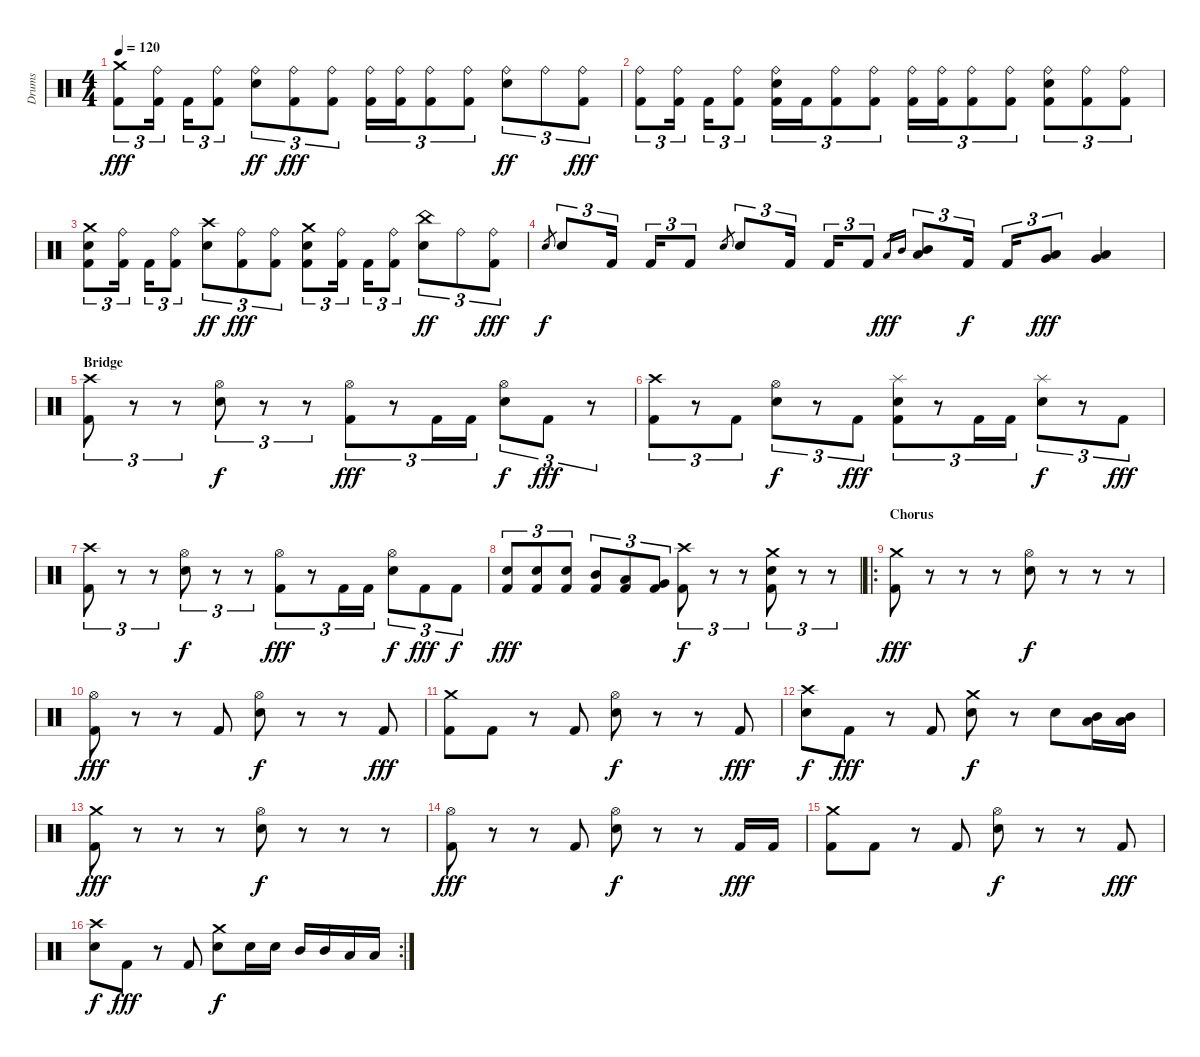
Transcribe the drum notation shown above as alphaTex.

\track ("Drums" "Drums") {instrument percussion}
\staff {score}
\articulation defaults
\ts (4 4)
\tempo 120
\clef neutral
\ks c
("Crash medium (hit)" "Kick (hit) 2").8{tu (3 2) dy fff} ("Ride (bell)" "Kick (hit) 2").16{tu (3 2)} "Kick (hit) 2".16{tu (3 2)} ("Ride (bell)" "Kick (hit) 2").8{tu (3 2)} ("Ride (bell)" "Snare (hit) 2").8{tu (3 2) dy ff} ("Ride (bell)" "Kick (hit) 2").8{tu (3 2) dy fff} ("Ride (bell)" "Kick (hit) 2").8{tu (3 2)} ("Ride (bell)" "Kick (hit) 2").16{tu (3 2)} ("Ride (bell)" "Kick (hit) 2").16{tu (3 2)} ("Ride (bell)" "Kick (hit) 2").8{tu (3 2)} ("Ride (bell)" "Kick (hit) 2").8{tu (3 2)} ("Ride (bell)" "Snare (hit) 2").8{tu (3 2) dy ff} "Ride (bell)".8{tu (3 2)} ("Ride (bell)" "Kick (hit) 2").8{tu (3 2) dy fff} |
("Ride (bell)" "Kick (hit) 2").8{tu (3 2)} ("Ride (bell)" "Kick (hit) 2").16{tu (3 2)} "Kick (hit) 2".16{tu (3 2)} ("Ride (bell)" "Kick (hit) 2").8{tu (3 2)} ("Ride (bell)" "Snare (hit) 2" "Kick (hit) 2").16{tu (3 2)} "Kick (hit) 2".16{tu (3 2)} ("Ride (bell)" "Kick (hit) 2").8{tu (3 2)} ("Ride (bell)" "Kick (hit) 2").8{tu (3 2)} ("Ride (bell)" "Kick (hit) 2").16{tu (3 2)} ("Ride (bell)" "Kick (hit) 2").16{tu (3 2)} ("Ride (bell)" "Kick (hit) 2").8{tu (3 2)} ("Ride (bell)" "Kick (hit) 2").8{tu (3 2)} ("Ride (bell)" "Snare (hit) 2" "Kick (hit) 2").8{tu (3 2)} ("Ride (bell)" "Kick (hit) 2").8{tu (3 2)} ("Ride (bell)" "Kick (hit) 2").8{tu (3 2)} |
("Crash medium (hit)" "Snare (hit) 2" "Kick (hit) 2").8{tu (3 2)} ("Ride (bell)" "Kick (hit) 2").16{tu (3 2)} "Kick (hit) 2".16{tu (3 2)} ("Ride (bell)" "Kick (hit) 2").8{tu (3 2)} ("Crash high (hit)" "Snare (hit) 2").8{tu (3 2) dy ff} ("Ride (bell)" "Kick (hit) 2").8{tu (3 2) dy fff} ("Ride (bell)" "Kick (hit) 2").8{tu (3 2)} ("Crash medium (hit)" "Snare (hit) 2" "Kick (hit) 2").8{tu (3 2)} ("Ride (bell)" "Kick (hit) 2").16{tu (3 2)} "Kick (hit) 2".16{tu (3 2)} ("Ride (bell)" "Kick (hit) 2").8{tu (3 2)} ("China (hit)" "Snare (hit) 2").8{tu (3 2) dy ff} "Ride (bell)".8{tu (3 2)} ("Ride (bell)" "Kick (hit) 2").8{tu (3 2) dy fff} |
"Snare (hit) 2".8{gr dy f} "Snare (hit) 2".8{tu (3 2)} "Kick (hit) 2".16{tu (3 2)} "Kick (hit) 2".16{tu (3 2)} "Kick (hit) 2".8{tu (3 2)} "Snare (hit) 2".8{gr} "Snare (hit) 2".8{tu (3 2)} "Kick (hit) 2".16{tu (3 2)} "Kick (hit) 2".16{tu (3 2)} "Kick (hit) 2".8{tu (3 2)} "Low Tom (hit)".16{gr dy fff} "Mid Tom (hit)".16{gr} ("Low Tom (hit)" "Mid Tom (hit)").8{tu (3 2)} "Kick (hit) 2".16{tu (3 2) dy f} "Kick (hit) 2".16{tu (3 2)} ("Very Low Tom (hit)" "Low Tom (hit)").8{tu (3 2) dy fff} ("Low Floor Tom (hit)" "Very Low Tom (hit)").4 |
\section ("" "Bridge")
("Crash high (hit)" "Kick (hit) 2").8{tu (3 2)} r.8{tu (3 2)} r.8{tu (3 2)} ("Hi-Hat (open)" "Snare (hit) 2").8{tu (3 2) dy f} r.8{tu (3 2)} r.8{tu (3 2)} ("Hi-Hat (open)" "Kick (hit) 2").8{tu (3 2) dy fff} r.8{tu (3 2)} "Kick (hit) 2".16{tu (3 2)} "Kick (hit) 2".16{tu (3 2)} ("Hi-Hat (open)" "Snare (hit) 2").8{tu (3 2) dy f} "Kick (hit) 2".8{tu (3 2) dy fff} r.8{tu (3 2)} |
("Crash high (hit)" "Kick (hit) 2").8{tu (3 2)} r.8{tu (3 2)} "Kick (hit) 2".8{tu (3 2)} ("Hi-Hat (open)" "Snare (hit) 2").8{tu (3 2) dy f} r.8{tu (3 2)} "Kick (hit) 2".8{tu (3 2) dy fff} ("Splash (hit)" "Snare (hit) 2" "Kick (hit) 2").8{tu (3 2)} r.8{tu (3 2)} "Kick (hit) 2".16{tu (3 2)} "Kick (hit) 2".16{tu (3 2)} ("Splash (hit)" "Snare (hit) 2").8{tu (3 2) dy f} r.8{tu (3 2)} "Kick (hit) 2".8{tu (3 2) dy fff} |
("Crash high (hit)" "Kick (hit) 2").8{tu (3 2)} r.8{tu (3 2)} r.8{tu (3 2)} ("Hi-Hat (open)" "Snare (hit) 2").8{tu (3 2) dy f} r.8{tu (3 2)} r.8{tu (3 2)} ("Hi-Hat (open)" "Kick (hit) 2").8{tu (3 2) dy fff} r.8{tu (3 2)} "Kick (hit) 2".16{tu (3 2)} "Kick (hit) 2".16{tu (3 2)} ("Hi-Hat (open)" "Snare (hit) 2").8{tu (3 2) dy f} "Kick (hit) 2".8{tu (3 2) dy fff} "Kick (hit) 2".8{tu (3 2) dy f} |
("Snare (hit) 2" "Kick (hit) 2").8{tu (3 2) dy fff} ("Snare (hit) 2" "Kick (hit) 2").8{tu (3 2)} ("Snare (hit) 2" "Kick (hit) 2").8{tu (3 2)} ("Mid Tom (hit)" "Kick (hit) 2").8{tu (3 2)} ("Low Tom (hit)" "Kick (hit) 2").8{tu (3 2)} ("Very Low Tom (hit)" "Kick (hit) 2").8{tu (3 2)} ("Crash high (hit)" "Kick (hit) 2").8{tu (3 2) dy f} r.8{tu (3 2)} r.8{tu (3 2)} ("Crash medium (hit)" "Snare (hit) 2" "Kick (hit) 2").8{tu (3 2)} r.8{tu (3 2)} r.8{tu (3 2)} |
\ro
\section ("" "Chorus")
("Crash medium (hit)" "Kick (hit) 2").8{dy fff} r.8 r.8 r.8 ("Hi-Hat (open)" "Snare (hit) 2").8{dy f} r.8 r.8 r.8 |
("Hi-Hat (open)" "Kick (hit) 2").8{dy fff} r.8 r.8 "Kick (hit) 2".8 ("Hi-Hat (open)" "Snare (hit) 2").8{dy f} r.8 r.8 "Kick (hit) 2".8{dy fff} |
("Crash medium (hit)" "Kick (hit) 2").8 "Kick (hit) 2".8 r.8 "Kick (hit) 2".8 ("Hi-Hat (open)" "Snare (hit) 2").8{dy f} r.8 r.8 "Kick (hit) 2".8{dy fff} |
("Crash high (hit)" "Snare (hit) 2").8{dy f} "Kick (hit) 2".8{dy fff} r.8 "Kick (hit) 2".8 ("Crash medium (hit)" "Snare (hit) 2").8{dy f} r.8 "Snare (hit) 2".8 ("Mid Tom (hit)" "Low Tom (hit)").16 ("Mid Tom (hit)" "Low Tom (hit)").16 |
("Crash medium (hit)" "Kick (hit) 2").8{dy fff} r.8 r.8 r.8 ("Hi-Hat (open)" "Snare (hit) 2").8{dy f} r.8 r.8 r.8 |
("Hi-Hat (open)" "Kick (hit) 2").8{dy fff} r.8 r.8 "Kick (hit) 2".8 ("Hi-Hat (open)" "Snare (hit) 2").8{dy f} r.8 r.8 "Kick (hit) 2".16{dy fff} "Kick (hit) 2".16 |
("Crash medium (hit)" "Kick (hit) 2").8 "Kick (hit) 2".8 r.8 "Kick (hit) 2".8 ("Hi-Hat (open)" "Snare (hit) 2").8{dy f} r.8 r.8 "Kick (hit) 2".8{dy fff} |
\rc 2
("Crash high (hit)" "Snare (hit) 2").8{dy f} "Kick (hit) 2".8{dy fff} r.8 "Kick (hit) 2".8 ("Crash medium (hit)" "Snare (hit) 2").8{dy f} "Snare (hit) 2".16 "Snare (hit) 2".16 "Mid Tom (hit)".16 "Mid Tom (hit)".16 "Low Tom (hit)".16 "Low Tom (hit)".16
